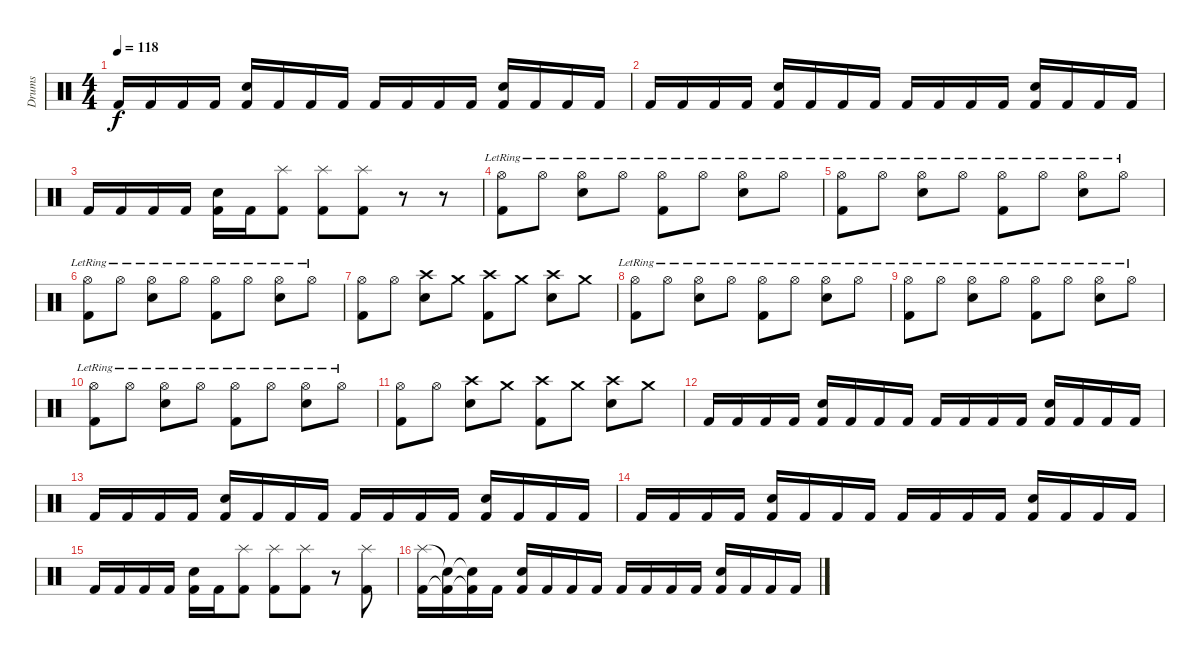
\track ("Drums" "Drums") {instrument percussion}
\staff {score}
\articulation defaults
\ts (4 4)
\tempo 118
\clef neutral
\ks c "Kick (hit) 2".16{dy f} "Kick (hit) 2".16 "Kick (hit) 2".16 "Kick (hit) 2".16
("Snare (hit) 2" "Kick (hit) 2").16 "Kick (hit) 2".16 "Kick (hit) 2".16 "Kick (hit) 2".16 "Kick (hit) 2".16 "Kick (hit) 2".16 "Kick (hit) 2".16 "Kick (hit) 2".16 ("Snare (hit) 2" "Kick (hit) 2").16 "Kick (hit) 2".16 "Kick (hit) 2".16 "Kick (hit) 2".16 |
"Kick (hit) 2".16 "Kick (hit) 2".16 "Kick (hit) 2".16 "Kick (hit) 2".16 ("Snare (hit) 2" "Kick (hit) 2").16 "Kick (hit) 2".16 "Kick (hit) 2".16 "Kick (hit) 2".16 "Kick (hit) 2".16 "Kick (hit) 2".16 "Kick (hit) 2".16 "Kick (hit) 2".16 ("Snare (hit) 2" "Kick (hit) 2").16 "Kick (hit) 2".16 "Kick (hit) 2".16 "Kick (hit) 2".16 |
"Kick (hit) 2".16 "Kick (hit) 2".16 "Kick (hit) 2".16 "Kick (hit) 2".16 ("Snare (hit) 2" "Kick (hit) 2").16 "Kick (hit) 2".16 ("Splash (hit)" "Kick (hit) 2").8 ("Splash (hit)" "Kick (hit) 2").8 ("Splash (hit)" "Kick (hit) 2").8 r.8 r.8 |
("Kick (hit) 2" "Hi-Hat (open)"{lr}).8 "Hi-Hat (open)"{lr}.8 ("Hi-Hat (open)"{lr} "Snare (hit) 2").8 "Hi-Hat (open)"{lr}.8 ("Hi-Hat (open)"{lr} "Kick (hit) 2").8 "Hi-Hat (open)"{lr}.8 ("Hi-Hat (open)"{lr} "Snare (hit) 2").8 "Hi-Hat (open)"{lr}.8 |
("Kick (hit) 2" "Hi-Hat (open)"{lr}).8 "Hi-Hat (open)"{lr}.8 ("Hi-Hat (open)"{lr} "Snare (hit) 2").8 "Hi-Hat (open)"{lr}.8 ("Hi-Hat (open)"{lr} "Kick (hit) 2").8 "Hi-Hat (open)"{lr}.8 ("Hi-Hat (open)"{lr} "Snare (hit) 2").8 "Hi-Hat (open)"{lr}.8 |
("Kick (hit) 2" "Hi-Hat (open)"{lr}).8 "Hi-Hat (open)"{lr}.8 ("Hi-Hat (open)"{lr} "Snare (hit) 2").8 "Hi-Hat (open)"{lr}.8 ("Hi-Hat (open)"{lr} "Kick (hit) 2").8 "Hi-Hat (open)"{lr}.8 ("Hi-Hat (open)"{lr} "Snare (hit) 2").8 "Hi-Hat (open)"{lr}.8 |
("Hi-Hat (open)" "Kick (hit) 2").8 "Hi-Hat (open)".8 ("Crash high (hit)" "Snare (hit) 2").8 "Crash medium (hit)".8 ("Crash high (hit)" "Kick (hit) 2").8 "Crash medium (hit)".8 ("Crash high (hit)" "Snare (hit) 2").8 "Crash medium (hit)".8 |
("Kick (hit) 2" "Hi-Hat (open)"{lr}).8 "Hi-Hat (open)"{lr}.8 ("Hi-Hat (open)"{lr} "Snare (hit) 2").8 "Hi-Hat (open)"{lr}.8 ("Hi-Hat (open)"{lr} "Kick (hit) 2").8 "Hi-Hat (open)"{lr}.8 ("Hi-Hat (open)"{lr} "Snare (hit) 2").8 "Hi-Hat (open)"{lr}.8 |
("Kick (hit) 2" "Hi-Hat (open)"{lr}).8 "Hi-Hat (open)"{lr}.8 ("Hi-Hat (open)"{lr} "Snare (hit) 2").8 "Hi-Hat (open)"{lr}.8 ("Hi-Hat (open)"{lr} "Kick (hit) 2").8 "Hi-Hat (open)"{lr}.8 ("Hi-Hat (open)"{lr} "Snare (hit) 2").8 "Hi-Hat (open)"{lr}.8 |
("Kick (hit) 2" "Hi-Hat (open)"{lr}).8 "Hi-Hat (open)"{lr}.8 ("Hi-Hat (open)"{lr} "Snare (hit) 2").8 "Hi-Hat (open)"{lr}.8 ("Hi-Hat (open)"{lr} "Kick (hit) 2").8 "Hi-Hat (open)"{lr}.8 ("Hi-Hat (open)"{lr} "Snare (hit) 2").8 "Hi-Hat (open)"{lr}.8 |
("Hi-Hat (open)" "Kick (hit) 2").8 "Hi-Hat (open)".8 ("Crash high (hit)" "Snare (hit) 2").8 "Crash medium (hit)".8 ("Crash high (hit)" "Kick (hit) 2").8 "Crash medium (hit)".8 ("Crash high (hit)" "Snare (hit) 2").8 "Crash medium (hit)".8 |
"Kick (hit) 2".16 "Kick (hit) 2".16 "Kick (hit) 2".16 "Kick (hit) 2".16 ("Snare (hit) 2" "Kick (hit) 2").16 "Kick (hit) 2".16 "Kick (hit) 2".16 "Kick (hit) 2".16 "Kick (hit) 2".16 "Kick (hit) 2".16 "Kick (hit) 2".16 "Kick (hit) 2".16 ("Snare (hit) 2" "Kick (hit) 2").16 "Kick (hit) 2".16 "Kick (hit) 2".16 "Kick (hit) 2".16 |
"Kick (hit) 2".16 "Kick (hit) 2".16 "Kick (hit) 2".16 "Kick (hit) 2".16 ("Snare (hit) 2" "Kick (hit) 2").16 "Kick (hit) 2".16 "Kick (hit) 2".16 "Kick (hit) 2".16 "Kick (hit) 2".16 "Kick (hit) 2".16 "Kick (hit) 2".16 "Kick (hit) 2".16 ("Snare (hit) 2" "Kick (hit) 2").16 "Kick (hit) 2".16 "Kick (hit) 2".16 "Kick (hit) 2".16 |
"Kick (hit) 2".16 "Kick (hit) 2".16 "Kick (hit) 2".16 "Kick (hit) 2".16 ("Snare (hit) 2" "Kick (hit) 2").16 "Kick (hit) 2".16 "Kick (hit) 2".16 "Kick (hit) 2".16 "Kick (hit) 2".16 "Kick (hit) 2".16 "Kick (hit) 2".16 "Kick (hit) 2".16 ("Snare (hit) 2" "Kick (hit) 2").16 "Kick (hit) 2".16 "Kick (hit) 2".16 "Kick (hit) 2".16 |
"Kick (hit) 2".16 "Kick (hit) 2".16 "Kick (hit) 2".16 "Kick (hit) 2".16 ("Snare (hit) 2" "Kick (hit) 2").16 "Kick (hit) 2".16 ("Splash (hit)" "Kick (hit) 2").8 ("Splash (hit)" "Kick (hit) 2").8 ("Splash (hit)" "Kick (hit) 2").8 r.8 ("Splash (hit)" "Kick (hit) 2").8 |
("Splash (hit)" "Kick (hit) 2").16 ("Snare (hit)"{t} "Kick (hit) 2"{t}).16 ("Snare (hit)"{t} "Kick (hit) 2"{t}).16 "Kick (hit) 2".16 ("Snare (hit) 2" "Kick (hit) 2").16 "Kick (hit) 2".16 "Kick (hit) 2".16 "Kick (hit) 2".16 "Kick (hit) 2".16 "Kick (hit) 2".16 "Kick (hit) 2".16 "Kick (hit) 2".16 ("Snare (hit) 2" "Kick (hit) 2").16 "Kick (hit) 2".16 "Kick (hit) 2".16 "Kick (hit) 2".16
